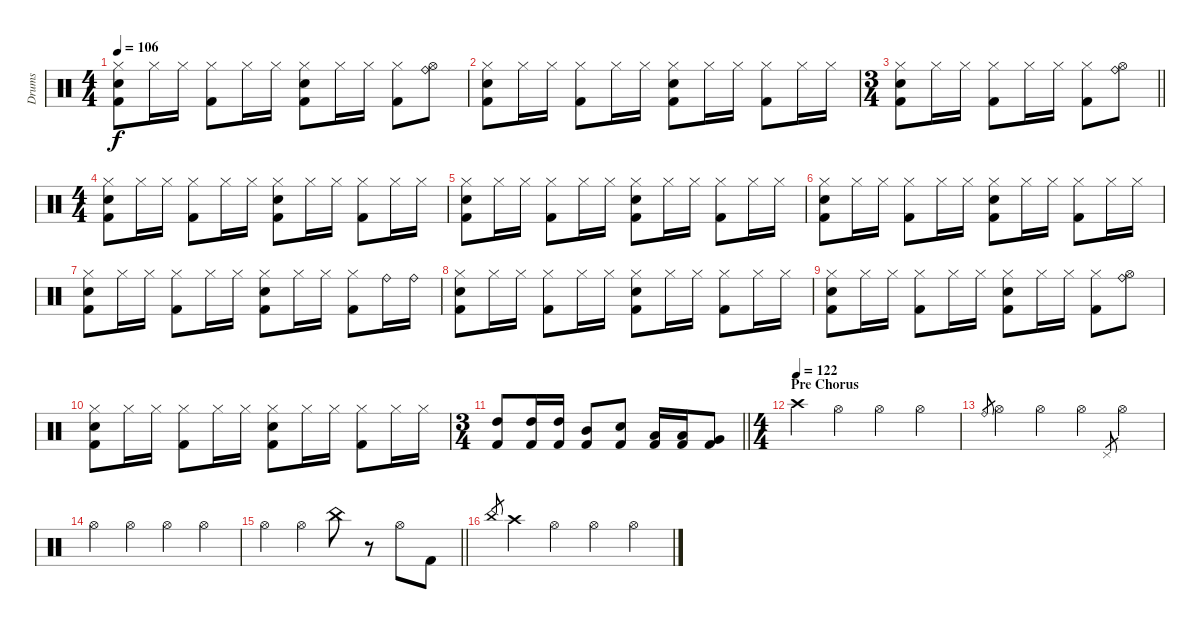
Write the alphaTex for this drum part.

\track ("Drums" "Drums") {instrument percussion}
\staff {score}
\articulation defaults
\ts (4 4)
\tempo 106
\clef neutral
\ks c
("Hi-Hat (closed)" "Snare (hit) 2" "Kick (hit) 2").8{dy f} "Hi-Hat (closed)".16 "Hi-Hat (closed)".16 ("Hi-Hat (closed)" "Kick (hit) 2").8 "Hi-Hat (closed)".16 "Hi-Hat (closed)".16 ("Hi-Hat (closed)" "Snare (hit) 2" "Kick (hit) 2").8 "Hi-Hat (closed)".16 "Hi-Hat (closed)".16 ("Hi-Hat (closed)" "Kick (hit) 2").8 ("Ride (bell)" "Hi-Hat (open)").8 |
("Hi-Hat (closed)" "Snare (hit) 2" "Kick (hit) 2").8 "Hi-Hat (closed)".16 "Hi-Hat (closed)".16 ("Hi-Hat (closed)" "Kick (hit) 2").8 "Hi-Hat (closed)".16 "Hi-Hat (closed)".16 ("Hi-Hat (closed)" "Snare (hit) 2" "Kick (hit) 2").8 "Hi-Hat (closed)".16 "Hi-Hat (closed)".16 ("Hi-Hat (closed)" "Kick (hit) 2").8 "Hi-Hat (closed)".16 "Hi-Hat (closed)".16 |
\ts (3 4)
\barLineRight lightlight
("Hi-Hat (closed)" "Snare (hit) 2" "Kick (hit) 2").8 "Hi-Hat (closed)".16 "Hi-Hat (closed)".16 ("Hi-Hat (closed)" "Kick (hit) 2").8 "Hi-Hat (closed)".16 "Hi-Hat (closed)".16 ("Hi-Hat (closed)" "Kick (hit) 2").8 ("Ride (bell)" "Hi-Hat (open)").8 |
\ts (4 4)
("Hi-Hat (closed)" "Snare (hit) 2" "Kick (hit) 2").8 "Hi-Hat (closed)".16 "Hi-Hat (closed)".16 ("Hi-Hat (closed)" "Kick (hit) 2").8 "Hi-Hat (closed)".16 "Hi-Hat (closed)".16 ("Hi-Hat (closed)" "Snare (hit) 2" "Kick (hit) 2").8 "Hi-Hat (closed)".16 "Hi-Hat (closed)".16 ("Hi-Hat (closed)" "Kick (hit) 2").8 "Hi-Hat (closed)".16 "Hi-Hat (closed)".16 |
("Hi-Hat (closed)" "Snare (hit) 2" "Kick (hit) 2").8 "Hi-Hat (closed)".16 "Hi-Hat (closed)".16 ("Hi-Hat (closed)" "Kick (hit) 2").8 "Hi-Hat (closed)".16 "Hi-Hat (closed)".16 ("Hi-Hat (closed)" "Snare (hit) 2" "Kick (hit) 2").8 "Hi-Hat (closed)".16 "Hi-Hat (closed)".16 ("Hi-Hat (closed)" "Kick (hit) 2").8 "Hi-Hat (closed)".16 "Hi-Hat (closed)".16 |
("Hi-Hat (closed)" "Snare (hit) 2" "Kick (hit) 2").8 "Hi-Hat (closed)".16 "Hi-Hat (closed)".16 ("Hi-Hat (closed)" "Kick (hit) 2").8 "Hi-Hat (closed)".16 "Hi-Hat (closed)".16 ("Hi-Hat (closed)" "Snare (hit) 2" "Kick (hit) 2").8 "Hi-Hat (closed)".16 "Hi-Hat (closed)".16 ("Hi-Hat (closed)" "Kick (hit) 2").8 "Hi-Hat (closed)".16 "Hi-Hat (closed)".16 |
("Hi-Hat (closed)" "Snare (hit) 2" "Kick (hit) 2").8 "Hi-Hat (closed)".16 "Hi-Hat (closed)".16 ("Hi-Hat (closed)" "Kick (hit) 2").8 "Hi-Hat (closed)".16 "Hi-Hat (closed)".16 ("Hi-Hat (closed)" "Snare (hit) 2" "Kick (hit) 2").8 "Hi-Hat (closed)".16 "Hi-Hat (closed)".16 ("Hi-Hat (closed)" "Kick (hit) 2").8 "Ride (bell)".16 "Ride (bell)".16 |
("Hi-Hat (closed)" "Snare (hit) 2" "Kick (hit) 2").8 "Hi-Hat (closed)".16 "Hi-Hat (closed)".16 ("Hi-Hat (closed)" "Kick (hit) 2").8 "Hi-Hat (closed)".16 "Hi-Hat (closed)".16 ("Hi-Hat (closed)" "Snare (hit) 2" "Kick (hit) 2").8 "Hi-Hat (closed)".16 "Hi-Hat (closed)".16 ("Hi-Hat (closed)" "Kick (hit) 2").8 "Hi-Hat (closed)".16 "Hi-Hat (closed)".16 |
("Hi-Hat (closed)" "Snare (hit) 2" "Kick (hit) 2").8 "Hi-Hat (closed)".16 "Hi-Hat (closed)".16 ("Hi-Hat (closed)" "Kick (hit) 2").8 "Hi-Hat (closed)".16 "Hi-Hat (closed)".16 ("Hi-Hat (closed)" "Snare (hit) 2" "Kick (hit) 2").8 "Hi-Hat (closed)".16 "Hi-Hat (closed)".16 ("Hi-Hat (closed)" "Kick (hit) 2").8 ("Ride (bell)" "Hi-Hat (open)").8 |
("Hi-Hat (closed)" "Snare (hit) 2" "Kick (hit) 2").8 "Hi-Hat (closed)".16 "Hi-Hat (closed)".16 ("Hi-Hat (closed)" "Kick (hit) 2").8 "Hi-Hat (closed)".16 "Hi-Hat (closed)".16 ("Hi-Hat (closed)" "Snare (hit) 2" "Kick (hit) 2").8 "Hi-Hat (closed)".16 "Hi-Hat (closed)".16 ("Hi-Hat (closed)" "Kick (hit) 2").8 "Hi-Hat (closed)".16 "Hi-Hat (closed)".16 |
\ts (3 4)
\barLineRight lightlight
("Kick (hit) 2" "High Tom (hit)").8 ("Kick (hit) 2" "High Tom (hit)").16 ("Kick (hit) 2" "High Tom (hit)").16 ("Kick (hit) 2" "Mid Tom (hit)").8 ("Kick (hit) 2" "Snare (hit) 2").8 ("Kick (hit) 2" "Low Tom (hit)").16 ("Kick (hit) 2" "Low Tom (hit)").16 ("Kick (hit) 2" "Very Low Tom (hit)").8 |
\ts (4 4)
\section ("" "Pre Chorus")
\tempo (122)
"Crash high (hit)".4 "Hi-Hat (open)".4 "Hi-Hat (open)".4 "Hi-Hat (open)".4 |
"Ride (bell)".8{gr} "Hi-Hat (open)".4 "Hi-Hat (open)".4 "Hi-Hat (open)".4 "Pedal Hi-Hat (hit)".8{gr} "Hi-Hat (open)".4 |
"Hi-Hat (open)".4 "Hi-Hat (open)".4 "Hi-Hat (open)".4 "Hi-Hat (open)".4 |
\barLineRight lightlight "Hi-Hat (open)".4 "Hi-Hat (open)".4 "China (hit)".8
r.8 "Hi-Hat (open)".8 "Kick (hit) 2".8 |
"China (hit)".8{gr} "Crash high (hit)".4 "Hi-Hat (open)".4 "Hi-Hat (open)".4 "Hi-Hat (open)".4
